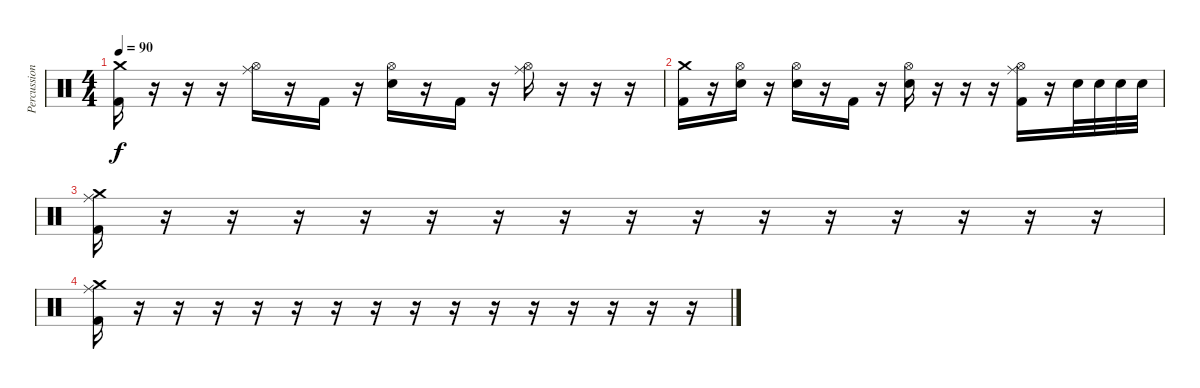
\track ("Percussion" "Percussion") {instrument percussion}
\staff {score}
\articulation defaults
\ts (4 4)
\tempo 90
\clef neutral
\ks c
("Crash medium (hit)" "Kick (hit) 2").16{dy f} r.16 r.16 r.16 ("Ride (middle)" "Hi-Hat (open)").16 r.16 "Kick (hit) 2".16 r.16 ("Hi-Hat (open)" "Electric Snare (hit)").16 r.16 "Kick (hit) 2".16 r.16 ("Ride (middle)" "Hi-Hat (open)").16 r.16 r.16 r.16 |
("Crash medium (hit)" "Kick (hit) 2").16 r.16 ("Hi-Hat (open)" "Electric Snare (hit)").16 r.16 ("Hi-Hat (open)" "Electric Snare (hit)").16 r.16 "Kick (hit) 2".16 r.16 ("Hi-Hat (open)" "Electric Snare (hit)").16 r.16 r.16 r.16 ("Hi-Hat (open)" "Ride (middle)" "Kick (hit) 2").16 r.16 "Electric Snare (hit)".32 "Electric Snare (hit)".32 "Electric Snare (hit)".32 "Electric Snare (hit)".32 |
("Crash medium (hit)" "Ride (middle)" "Kick (hit) 2").16 r.16 r.16 r.16 r.16 r.16 r.16 r.16 r.16 r.16 r.16 r.16 r.16 r.16 r.16 r.16 |
("Crash medium (hit)" "Ride (middle)" "Kick (hit) 2").16 r.16 r.16 r.16 r.16 r.16 r.16 r.16 r.16 r.16 r.16 r.16 r.16 r.16 r.16 r.16
